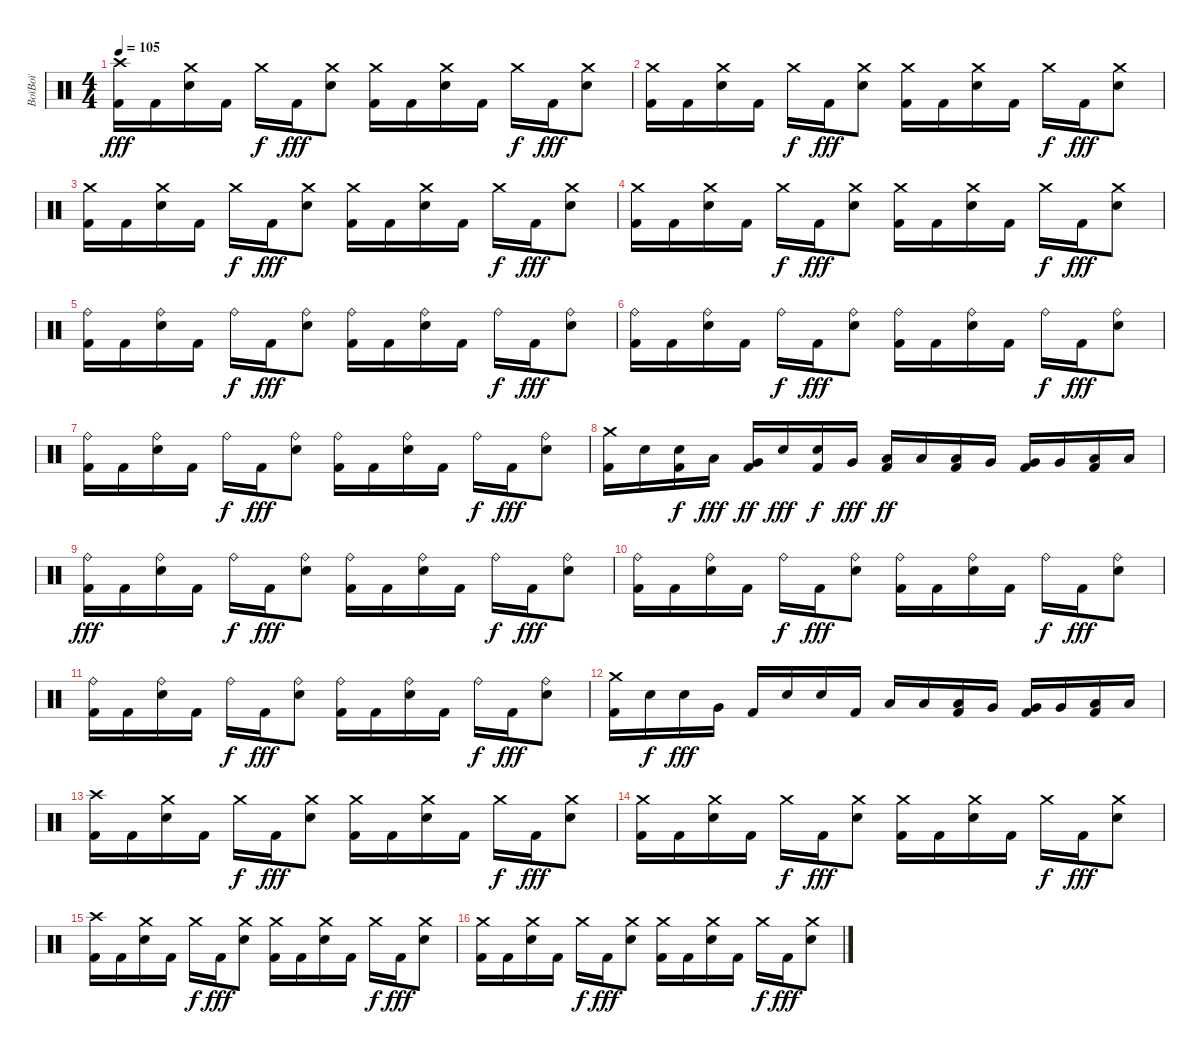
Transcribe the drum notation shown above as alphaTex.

\track ("BoïBoï" "BoïBoï") {instrument percussion}
\staff {score}
\articulation defaults
\ts (4 4)
\tempo 105
\clef neutral
\ks c
("Crash high (hit)" "Kick (hit) 2").16{dy fff} "Kick (hit) 2".16 ("Crash medium (hit)" "Electric Snare (hit)").16 "Kick (hit) 2".16 "Crash medium (hit)".16{dy f} "Kick (hit) 2".16{dy fff} ("Crash medium (hit)" "Electric Snare (hit)").8 ("Crash medium (hit)" "Kick (hit) 2").16 "Kick (hit) 2".16 ("Crash medium (hit)" "Electric Snare (hit)").16 "Kick (hit) 2".16 "Crash medium (hit)".16{dy f} "Kick (hit) 2".16{dy fff} ("Crash medium (hit)" "Electric Snare (hit)").8 |
("Crash medium (hit)" "Kick (hit) 2").16 "Kick (hit) 2".16 ("Crash medium (hit)" "Electric Snare (hit)").16 "Kick (hit) 2".16 "Crash medium (hit)".16{dy f} "Kick (hit) 2".16{dy fff} ("Crash medium (hit)" "Electric Snare (hit)").8 ("Crash medium (hit)" "Kick (hit) 2").16 "Kick (hit) 2".16 ("Crash medium (hit)" "Electric Snare (hit)").16 "Kick (hit) 2".16 "Crash medium (hit)".16{dy f} "Kick (hit) 2".16{dy fff} ("Crash medium (hit)" "Electric Snare (hit)").8 |
("Crash medium (hit)" "Kick (hit) 2").16 "Kick (hit) 2".16 ("Crash medium (hit)" "Electric Snare (hit)").16 "Kick (hit) 2".16 "Crash medium (hit)".16{dy f} "Kick (hit) 2".16{dy fff} ("Crash medium (hit)" "Electric Snare (hit)").8 ("Crash medium (hit)" "Kick (hit) 2").16 "Kick (hit) 2".16 ("Crash medium (hit)" "Electric Snare (hit)").16 "Kick (hit) 2".16 "Crash medium (hit)".16{dy f} "Kick (hit) 2".16{dy fff} ("Crash medium (hit)" "Electric Snare (hit)").8 |
("Crash medium (hit)" "Kick (hit) 2").16 "Kick (hit) 2".16 ("Crash medium (hit)" "Electric Snare (hit)").16 "Kick (hit) 2".16 "Crash medium (hit)".16{dy f} "Kick (hit) 2".16{dy fff} ("Crash medium (hit)" "Electric Snare (hit)").8 ("Crash medium (hit)" "Kick (hit) 2").16 "Kick (hit) 2".16 ("Crash medium (hit)" "Electric Snare (hit)").16 "Kick (hit) 2".16 "Crash medium (hit)".16{dy f} "Kick (hit) 2".16{dy fff} ("Crash medium (hit)" "Electric Snare (hit)").8 |
("Ride (bell)" "Kick (hit) 2").16 "Kick (hit) 2".16 ("Ride (bell)" "Electric Snare (hit)").16 "Kick (hit) 2".16 "Ride (bell)".16{dy f} "Kick (hit) 2".16{dy fff} ("Ride (bell)" "Electric Snare (hit)").8 ("Ride (bell)" "Kick (hit) 2").16 "Kick (hit) 2".16 ("Ride (bell)" "Electric Snare (hit)").16 "Kick (hit) 2".16 "Ride (bell)".16{dy f} "Kick (hit) 2".16{dy fff} ("Ride (bell)" "Electric Snare (hit)").8 |
("Ride (bell)" "Kick (hit) 2").16 "Kick (hit) 2".16 ("Ride (bell)" "Electric Snare (hit)").16 "Kick (hit) 2".16 "Ride (bell)".16{dy f} "Kick (hit) 2".16{dy fff} ("Ride (bell)" "Electric Snare (hit)").8 ("Ride (bell)" "Kick (hit) 2").16 "Kick (hit) 2".16 ("Ride (bell)" "Electric Snare (hit)").16 "Kick (hit) 2".16 "Ride (bell)".16{dy f} "Kick (hit) 2".16{dy fff} ("Ride (bell)" "Electric Snare (hit)").8 |
("Ride (bell)" "Kick (hit) 2").16 "Kick (hit) 2".16 ("Ride (bell)" "Electric Snare (hit)").16 "Kick (hit) 2".16 "Ride (bell)".16{dy f} "Kick (hit) 2".16{dy fff} ("Ride (bell)" "Electric Snare (hit)").8 ("Ride (bell)" "Kick (hit) 2").16 "Kick (hit) 2".16 ("Ride (bell)" "Electric Snare (hit)").16 "Kick (hit) 2".16 "Ride (bell)".16{dy f} "Kick (hit) 2".16{dy fff} ("Ride (bell)" "Electric Snare (hit)").8 |
("Crash medium (hit)" "Kick (hit) 2").16 "Electric Snare (hit)".16 ("Electric Snare (hit)" "Kick (hit) 2").16{dy f} "Low Tom (hit)".16{dy fff} ("Very Low Tom (hit)" "Kick (hit) 2").16{dy ff} "Electric Snare (hit)".16{dy fff} ("Electric Snare (hit)" "Kick (hit) 2").16{dy f} "Very Low Tom (hit)".16{dy fff} ("Low Tom (hit)" "Kick (hit) 2").16{dy ff} "Low Tom (hit)".16 ("Low Tom (hit)" "Kick (hit) 2").16 "Very Low Tom (hit)".16 ("Very Low Tom (hit)" "Kick (hit) 2").16 "Very Low Tom (hit)".16 ("Low Floor Tom (hit)" "Kick (hit) 2").16 "Low Floor Tom (hit)".16 |
("Ride (bell)" "Kick (hit) 2").16{dy fff} "Kick (hit) 2".16 ("Ride (bell)" "Electric Snare (hit)").16 "Kick (hit) 2".16 "Ride (bell)".16{dy f} "Kick (hit) 2".16{dy fff} ("Ride (bell)" "Electric Snare (hit)").8 ("Ride (bell)" "Kick (hit) 2").16 "Kick (hit) 2".16 ("Ride (bell)" "Electric Snare (hit)").16 "Kick (hit) 2".16 "Ride (bell)".16{dy f} "Kick (hit) 2".16{dy fff} ("Ride (bell)" "Electric Snare (hit)").8 |
("Ride (bell)" "Kick (hit) 2").16 "Kick (hit) 2".16 ("Ride (bell)" "Electric Snare (hit)").16 "Kick (hit) 2".16 "Ride (bell)".16{dy f} "Kick (hit) 2".16{dy fff} ("Ride (bell)" "Electric Snare (hit)").8 ("Ride (bell)" "Kick (hit) 2").16 "Kick (hit) 2".16 ("Ride (bell)" "Electric Snare (hit)").16 "Kick (hit) 2".16 "Ride (bell)".16{dy f} "Kick (hit) 2".16{dy fff} ("Ride (bell)" "Electric Snare (hit)").8 |
("Ride (bell)" "Kick (hit) 2").16 "Kick (hit) 2".16 ("Ride (bell)" "Electric Snare (hit)").16 "Kick (hit) 2".16 "Ride (bell)".16{dy f} "Kick (hit) 2".16{dy fff} ("Ride (bell)" "Electric Snare (hit)").8 ("Ride (bell)" "Kick (hit) 2").16 "Kick (hit) 2".16 ("Ride (bell)" "Electric Snare (hit)").16 "Kick (hit) 2".16 "Ride (bell)".16{dy f} "Kick (hit) 2".16{dy fff} ("Ride (bell)" "Electric Snare (hit)").8 |
("Crash medium (hit)" "Kick (hit) 2").16 "Electric Snare (hit)".16{dy f} "Electric Snare (hit)".16{dy fff} "Very Low Tom (hit)".16 "Kick (hit) 2".16 "Electric Snare (hit)".16 "Electric Snare (hit)".16 "Kick (hit) 2".16 "Low Tom (hit)".16 "Low Tom (hit)".16 ("Low Tom (hit)" "Kick (hit) 2").16 "Very Low Tom (hit)".16 ("Very Low Tom (hit)" "Kick (hit) 2").16 "Very Low Tom (hit)".16 ("Low Floor Tom (hit)" "Kick (hit) 2").16 "Low Floor Tom (hit)".16 |
("Crash high (hit)" "Kick (hit) 2").16 "Kick (hit) 2".16 ("Crash medium (hit)" "Electric Snare (hit)").16 "Kick (hit) 2".16 "Crash medium (hit)".16{dy f} "Kick (hit) 2".16{dy fff} ("Crash medium (hit)" "Electric Snare (hit)").8 ("Crash medium (hit)" "Kick (hit) 2").16 "Kick (hit) 2".16 ("Crash medium (hit)" "Electric Snare (hit)").16 "Kick (hit) 2".16 "Crash medium (hit)".16{dy f} "Kick (hit) 2".16{dy fff} ("Crash medium (hit)" "Electric Snare (hit)").8 |
("Crash medium (hit)" "Kick (hit) 2").16 "Kick (hit) 2".16 ("Crash medium (hit)" "Electric Snare (hit)").16 "Kick (hit) 2".16 "Crash medium (hit)".16{dy f} "Kick (hit) 2".16{dy fff} ("Crash medium (hit)" "Electric Snare (hit)").8 ("Crash medium (hit)" "Kick (hit) 2").16 "Kick (hit) 2".16 ("Crash medium (hit)" "Electric Snare (hit)").16 "Kick (hit) 2".16 "Crash medium (hit)".16{dy f} "Kick (hit) 2".16{dy fff} ("Crash medium (hit)" "Electric Snare (hit)").8 |
("Crash high (hit)" "Kick (hit) 2").16 "Kick (hit) 2".16 ("Crash medium (hit)" "Electric Snare (hit)").16 "Kick (hit) 2".16 "Crash medium (hit)".16{dy f} "Kick (hit) 2".16{dy fff} ("Crash medium (hit)" "Electric Snare (hit)").8 ("Crash medium (hit)" "Kick (hit) 2").16 "Kick (hit) 2".16 ("Crash medium (hit)" "Electric Snare (hit)").16 "Kick (hit) 2".16 "Crash medium (hit)".16{dy f} "Kick (hit) 2".16{dy fff} ("Crash medium (hit)" "Electric Snare (hit)").8 |
("Crash medium (hit)" "Kick (hit) 2").16 "Kick (hit) 2".16 ("Crash medium (hit)" "Electric Snare (hit)").16 "Kick (hit) 2".16 "Crash medium (hit)".16{dy f} "Kick (hit) 2".16{dy fff} ("Crash medium (hit)" "Electric Snare (hit)").8 ("Crash medium (hit)" "Kick (hit) 2").16 "Kick (hit) 2".16 ("Crash medium (hit)" "Electric Snare (hit)").16 "Kick (hit) 2".16 "Crash medium (hit)".16{dy f} "Kick (hit) 2".16{dy fff} ("Crash medium (hit)" "Electric Snare (hit)").8
